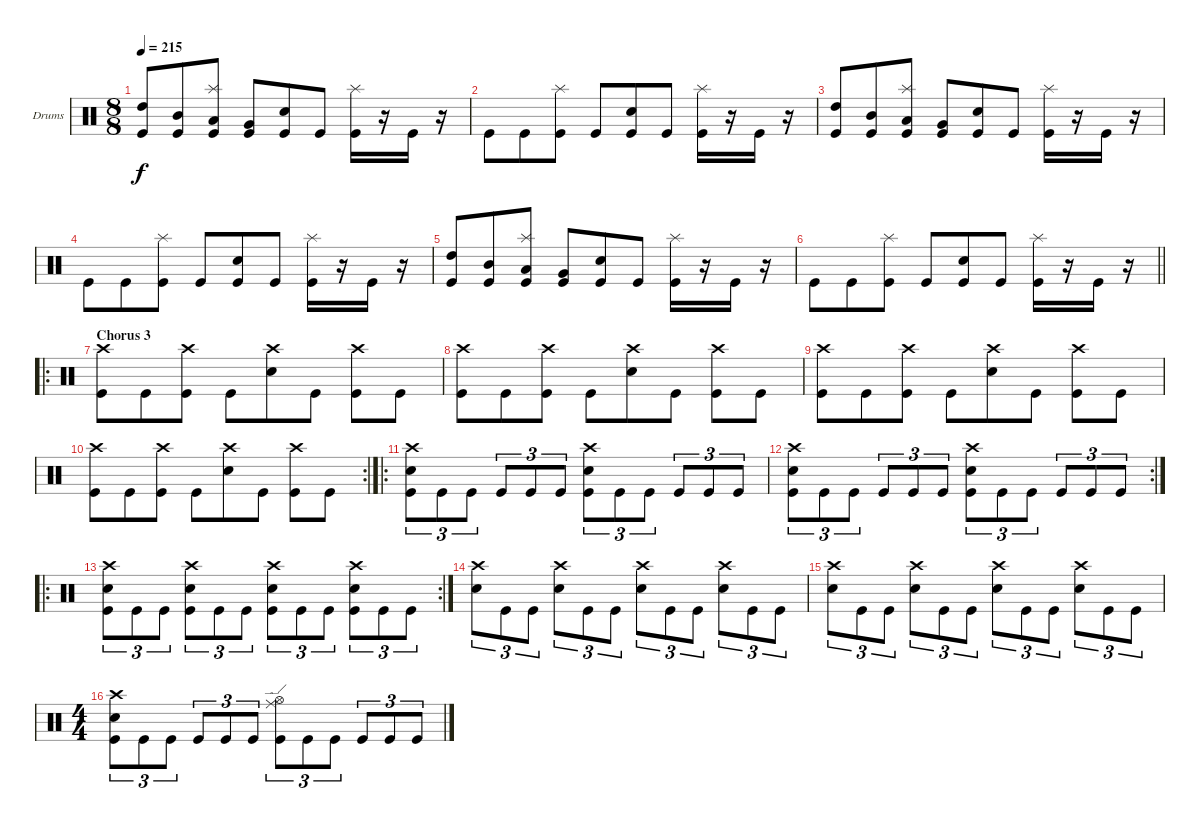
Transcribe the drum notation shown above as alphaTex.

\bracketExtendMode groupsimilarinstruments
\firstSystemTrackNameOrientation horizontal
\otherSystemsTrackNameOrientation horizontal
\track ("Dave McClain" "Drums") {instrument percussion}
\staff {score}
\articulation defaults
\ts (8 8)
\tempo 215
\clef neutral
\ks c
("High Tom (hit)" "Kick (hit)").8{dy f} ("Mid Tom (hit)" "Kick (hit)").8 ("Splash (hit)" "Low Tom (hit)" "Kick (hit)").8 ("Very Low Tom (hit)" "Kick (hit)").8 ("Snare (hit) 2" "Kick (hit)").8 "Kick (hit)".8 ("Splash (hit)" "Kick (hit)").16 r.16 "Kick (hit)".16 r.16 |
"Kick (hit)".8 "Kick (hit)".8 ("Splash (hit)" "Kick (hit)").8 "Kick (hit)".8 ("Snare (hit) 2" "Kick (hit)").8 "Kick (hit)".8 ("Splash (hit)" "Kick (hit)").16 r.16 "Kick (hit)".16 r.16 |
("High Tom (hit)" "Kick (hit)").8 ("Mid Tom (hit)" "Kick (hit)").8 ("Splash (hit)" "Low Tom (hit)" "Kick (hit)").8 ("Very Low Tom (hit)" "Kick (hit)").8 ("Snare (hit) 2" "Kick (hit)").8 "Kick (hit)".8 ("Splash (hit)" "Kick (hit)").16 r.16 "Kick (hit)".16 r.16 |
"Kick (hit)".8 "Kick (hit)".8 ("Splash (hit)" "Kick (hit)").8 "Kick (hit)".8 ("Snare (hit) 2" "Kick (hit)").8 "Kick (hit)".8 ("Splash (hit)" "Kick (hit)").16 r.16 "Kick (hit)".16 r.16 |
("High Tom (hit)" "Kick (hit)").8 ("Mid Tom (hit)" "Kick (hit)").8 ("Splash (hit)" "Low Tom (hit)" "Kick (hit)").8 ("Very Low Tom (hit)" "Kick (hit)").8 ("Snare (hit) 2" "Kick (hit)").8 "Kick (hit)".8 ("Splash (hit)" "Kick (hit)").16 r.16 "Kick (hit)".16 r.16 |
\barLineRight lightlight "Kick (hit)".8 "Kick (hit)".8
("Splash (hit)" "Kick (hit)").8 "Kick (hit)".8 ("Snare (hit) 2" "Kick (hit)").8 "Kick (hit)".8 ("Splash (hit)" "Kick (hit)").16 r.16 "Kick (hit)".16 r.16 |
\ro
\section ("" "Chorus 3")
("Crash high (hit)" "Kick (hit)").8 "Kick (hit)".8 ("Crash high (hit)" "Kick (hit)").8 "Kick (hit)".8 ("Crash high (hit)" "Snare (hit) 2").8 "Kick (hit)".8 ("Crash high (hit)" "Kick (hit)").8 "Kick (hit)".8 |
("Crash high (hit)" "Kick (hit)").8 "Kick (hit)".8 ("Crash high (hit)" "Kick (hit)").8 "Kick (hit)".8 ("Crash high (hit)" "Snare (hit) 2").8 "Kick (hit)".8 ("Crash high (hit)" "Kick (hit)").8 "Kick (hit)".8 |
("Crash high (hit)" "Kick (hit)").8 "Kick (hit)".8 ("Crash high (hit)" "Kick (hit)").8 "Kick (hit)".8 ("Crash high (hit)" "Snare (hit) 2").8 "Kick (hit)".8 ("Crash high (hit)" "Kick (hit)").8 "Kick (hit)".8 |
\rc 2
("Crash high (hit)" "Kick (hit)").8 "Kick (hit)".8 ("Crash high (hit)" "Kick (hit)").8 "Kick (hit)".8 ("Crash high (hit)" "Snare (hit) 2").8 "Kick (hit)".8 ("Crash high (hit)" "Kick (hit)").8 "Kick (hit)".8 |
\ro
("Crash high (hit)" "Snare (hit) 2" "Kick (hit)").8{tu (3 2)} "Kick (hit)".8{tu (3 2)} "Kick (hit)".8{tu (3 2)} "Kick (hit)".8{tu (3 2)} "Kick (hit)".8{tu (3 2)} "Kick (hit)".8{tu (3 2)} ("Crash high (hit)" "Snare (hit) 2" "Kick (hit)").8{tu (3 2)} "Kick (hit)".8{tu (3 2)} "Kick (hit)".8{tu (3 2)} "Kick (hit)".8{tu (3 2)} "Kick (hit)".8{tu (3 2)} "Kick (hit)".8{tu (3 2)} |
\rc 2
("Crash high (hit)" "Snare (hit) 2" "Kick (hit)").8{tu (3 2)} "Kick (hit)".8{tu (3 2)} "Kick (hit)".8{tu (3 2)} "Kick (hit)".8{tu (3 2)} "Kick (hit)".8{tu (3 2)} "Kick (hit)".8{tu (3 2)} ("Crash high (hit)" "Snare (hit) 2" "Kick (hit)").8{tu (3 2)} "Kick (hit)".8{tu (3 2)} "Kick (hit)".8{tu (3 2)} "Kick (hit)".8{tu (3 2)} "Kick (hit)".8{tu (3 2)} "Kick (hit)".8{tu (3 2)} |
\ro
\rc 2
("Crash high (hit)" "Snare (hit) 2" "Kick (hit)").8{tu (3 2)} "Kick (hit)".8{tu (3 2)} "Kick (hit)".8{tu (3 2)} ("Crash high (hit)" "Snare (hit) 2" "Kick (hit)").8{tu (3 2)} "Kick (hit)".8{tu (3 2)} "Kick (hit)".8{tu (3 2)} ("Crash high (hit)" "Snare (hit) 2" "Kick (hit)").8{tu (3 2)} "Kick (hit)".8{tu (3 2)} "Kick (hit)".8{tu (3 2)} ("Crash high (hit)" "Snare (hit) 2" "Kick (hit)").8{tu (3 2)} "Kick (hit)".8{tu (3 2)} "Kick (hit)".8{tu (3 2)} |
("Crash high (hit)" "Snare (hit) 2").8{tu (3 2)} "Kick (hit)".8{tu (3 2)} "Kick (hit)".8{tu (3 2)} ("Crash high (hit)" "Snare (hit) 2").8{tu (3 2)} "Kick (hit)".8{tu (3 2)} "Kick (hit)".8{tu (3 2)} ("Crash high (hit)" "Snare (hit) 2").8{tu (3 2)} "Kick (hit)".8{tu (3 2)} "Kick (hit)".8{tu (3 2)} ("Crash high (hit)" "Snare (hit) 2").8{tu (3 2)} "Kick (hit)".8{tu (3 2)} "Kick (hit)".8{tu (3 2)} |
("Crash high (hit)" "Snare (hit) 2").8{tu (3 2)} "Kick (hit)".8{tu (3 2)} "Kick (hit)".8{tu (3 2)} ("Crash high (hit)" "Snare (hit) 2").8{tu (3 2)} "Kick (hit)".8{tu (3 2)} "Kick (hit)".8{tu (3 2)} ("Crash high (hit)" "Snare (hit) 2").8{tu (3 2)} "Kick (hit)".8{tu (3 2)} "Kick (hit)".8{tu (3 2)} ("Crash high (hit)" "Snare (hit) 2").8{tu (3 2)} "Kick (hit)".8{tu (3 2)} "Kick (hit)".8{tu (3 2)} |
\ts (4 4)
("Crash high (hit)" "Snare (hit) 2" "Kick (hit)").8{tu (3 2)} "Kick (hit)".8{tu (3 2)} "Kick (hit)".8{tu (3 2)} "Kick (hit)".8{tu (3 2)} "Kick (hit)".8{tu (3 2)} "Kick (hit)".8{tu (3 2)} ("Ride (edge)" "Hi-Hat (open)" "Kick (hit)").8{tu (3 2)} "Kick (hit)".8{tu (3 2)} "Kick (hit)".8{tu (3 2)} "Kick (hit)".8{tu (3 2)} "Kick (hit)".8{tu (3 2)} "Kick (hit)".8{tu (3 2)}
